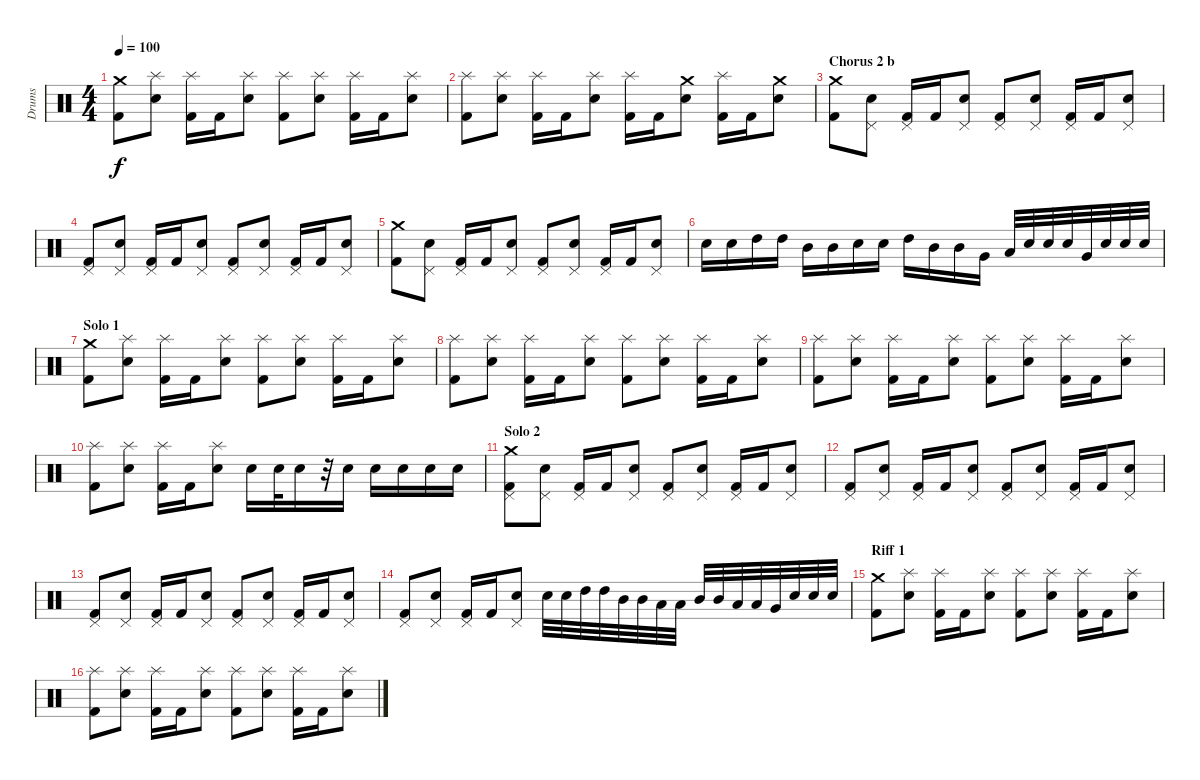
\track ("Drums" "Drums") {instrument percussion}
\staff {score}
\articulation defaults
\ts (4 4)
\tempo 100
\clef neutral
\ks c
("Crash medium (hit)" "Kick (hit) 2").8{dy f} ("Splash (hit)" "Electric Snare (hit)").8 ("Splash (hit)" "Kick (hit) 2").16 "Kick (hit) 2".16 ("Splash (hit)" "Electric Snare (hit)").8 ("Splash (hit)" "Kick (hit) 2").8 ("Splash (hit)" "Electric Snare (hit)").8 ("Splash (hit)" "Kick (hit) 2").16 "Kick (hit) 2".16 ("Splash (hit)" "Electric Snare (hit)").8 |
("Splash (hit)" "Kick (hit) 2").8 ("Splash (hit)" "Electric Snare (hit)").8 ("Splash (hit)" "Kick (hit) 2").16 "Kick (hit) 2".16 ("Splash (hit)" "Electric Snare (hit)").8 ("Splash (hit)" "Kick (hit) 2").16 "Kick (hit) 2".16 ("Crash medium (hit)" "Electric Snare (hit)").8 ("Splash (hit)" "Kick (hit) 2").16 "Kick (hit) 2".16 ("Crash medium (hit)" "Electric Snare (hit)").8 |
\section ("" "Chorus 2 b")
("Crash medium (hit)" "Kick (hit) 2").8 ("Pedal Hi-Hat (hit)" "Electric Snare (hit)").8 ("Pedal Hi-Hat (hit)" "Kick (hit) 2").16 "Kick (hit) 2".16 ("Pedal Hi-Hat (hit)" "Electric Snare (hit)").8 ("Pedal Hi-Hat (hit)" "Kick (hit) 2").8 ("Pedal Hi-Hat (hit)" "Electric Snare (hit)").8 ("Pedal Hi-Hat (hit)" "Kick (hit) 2").16 "Kick (hit) 2".16 ("Pedal Hi-Hat (hit)" "Electric Snare (hit)").8 |
("Pedal Hi-Hat (hit)" "Kick (hit) 2").8 ("Pedal Hi-Hat (hit)" "Electric Snare (hit)").8 ("Pedal Hi-Hat (hit)" "Kick (hit) 2").16 "Kick (hit) 2".16 ("Pedal Hi-Hat (hit)" "Electric Snare (hit)").8 ("Pedal Hi-Hat (hit)" "Kick (hit) 2").8 ("Pedal Hi-Hat (hit)" "Electric Snare (hit)").8 ("Pedal Hi-Hat (hit)" "Kick (hit) 2").16 "Kick (hit) 2".16 ("Pedal Hi-Hat (hit)" "Electric Snare (hit)").8 |
("Crash medium (hit)" "Kick (hit) 2").8 ("Pedal Hi-Hat (hit)" "Electric Snare (hit)").8 ("Pedal Hi-Hat (hit)" "Kick (hit) 2").16 "Kick (hit) 2".16 ("Pedal Hi-Hat (hit)" "Electric Snare (hit)").8 ("Pedal Hi-Hat (hit)" "Kick (hit) 2").8 ("Pedal Hi-Hat (hit)" "Electric Snare (hit)").8 ("Pedal Hi-Hat (hit)" "Kick (hit) 2").16 "Kick (hit) 2".16 ("Pedal Hi-Hat (hit)" "Electric Snare (hit)").8 |
"Electric Snare (hit)".16 "Electric Snare (hit)".16 "High Tom (hit)".16 "High Tom (hit)".16 "Mid Tom (hit)".16 "Mid Tom (hit)".16 "Electric Snare (hit)".16 "Electric Snare (hit)".16 "High Tom (hit)".16 "Mid Tom (hit)".16 "Mid Tom (hit)".16 "Very Low Tom (hit)".16 "Low Tom (hit)".32 "Electric Snare (hit)".32 "Electric Snare (hit)".32 "Electric Snare (hit)".32 "Very Low Tom (hit)".32 "Electric Snare (hit)".32 "Electric Snare (hit)".32 "Electric Snare (hit)".32 |
\section ("" "Solo 1")
("Crash medium (hit)" "Kick (hit) 2").8 ("Splash (hit)" "Electric Snare (hit)").8 ("Splash (hit)" "Kick (hit) 2").16 "Kick (hit) 2".16 ("Splash (hit)" "Electric Snare (hit)").8 ("Splash (hit)" "Kick (hit) 2").8 ("Splash (hit)" "Electric Snare (hit)").8 ("Splash (hit)" "Kick (hit) 2").16 "Kick (hit) 2".16 ("Splash (hit)" "Electric Snare (hit)").8 |
("Splash (hit)" "Kick (hit) 2").8 ("Splash (hit)" "Electric Snare (hit)").8 ("Splash (hit)" "Kick (hit) 2").16 "Kick (hit) 2".16 ("Splash (hit)" "Electric Snare (hit)").8 ("Splash (hit)" "Kick (hit) 2").8 ("Splash (hit)" "Electric Snare (hit)").8 ("Splash (hit)" "Kick (hit) 2").16 "Kick (hit) 2".16 ("Splash (hit)" "Electric Snare (hit)").8 |
("Splash (hit)" "Kick (hit) 2").8 ("Splash (hit)" "Electric Snare (hit)").8 ("Splash (hit)" "Kick (hit) 2").16 "Kick (hit) 2".16 ("Splash (hit)" "Electric Snare (hit)").8 ("Splash (hit)" "Kick (hit) 2").8 ("Splash (hit)" "Electric Snare (hit)").8 ("Splash (hit)" "Kick (hit) 2").16 "Kick (hit) 2".16 ("Splash (hit)" "Electric Snare (hit)").8 |
("Splash (hit)" "Kick (hit) 2").8 ("Splash (hit)" "Electric Snare (hit)").8 ("Splash (hit)" "Kick (hit) 2").16 "Kick (hit) 2".16 ("Splash (hit)" "Electric Snare (hit)").8 "Electric Snare (hit)".16 "Electric Snare (hit)".32 "Electric Snare (hit)".16 r.32 "Electric Snare (hit)".16 "Electric Snare (hit)".16 "Electric Snare (hit)".16 "Electric Snare (hit)".16 "Electric Snare (hit)".16 |
\section ("" "Solo 2")
("Pedal Hi-Hat (hit)" "Crash medium (hit)" "Kick (hit) 2").8 ("Pedal Hi-Hat (hit)" "Electric Snare (hit)").8 ("Pedal Hi-Hat (hit)" "Kick (hit) 2").16 "Kick (hit) 2".16 ("Pedal Hi-Hat (hit)" "Electric Snare (hit)").8 ("Pedal Hi-Hat (hit)" "Kick (hit) 2").8 ("Pedal Hi-Hat (hit)" "Electric Snare (hit)").8 ("Pedal Hi-Hat (hit)" "Kick (hit) 2").16 "Kick (hit) 2".16 ("Pedal Hi-Hat (hit)" "Electric Snare (hit)").8 |
("Pedal Hi-Hat (hit)" "Kick (hit) 2").8 ("Pedal Hi-Hat (hit)" "Electric Snare (hit)").8 ("Pedal Hi-Hat (hit)" "Kick (hit) 2").16 "Kick (hit) 2".16 ("Pedal Hi-Hat (hit)" "Electric Snare (hit)").8 ("Pedal Hi-Hat (hit)" "Kick (hit) 2").8 ("Pedal Hi-Hat (hit)" "Electric Snare (hit)").8 ("Pedal Hi-Hat (hit)" "Kick (hit) 2").16 "Kick (hit) 2".16 ("Pedal Hi-Hat (hit)" "Electric Snare (hit)").8 |
("Pedal Hi-Hat (hit)" "Kick (hit) 2").8 ("Pedal Hi-Hat (hit)" "Electric Snare (hit)").8 ("Pedal Hi-Hat (hit)" "Kick (hit) 2").16 "Kick (hit) 2".16 ("Pedal Hi-Hat (hit)" "Electric Snare (hit)").8 ("Pedal Hi-Hat (hit)" "Kick (hit) 2").8 ("Pedal Hi-Hat (hit)" "Electric Snare (hit)").8 ("Pedal Hi-Hat (hit)" "Kick (hit) 2").16 "Kick (hit) 2".16 ("Pedal Hi-Hat (hit)" "Electric Snare (hit)").8 |
("Pedal Hi-Hat (hit)" "Kick (hit) 2").8 ("Pedal Hi-Hat (hit)" "Electric Snare (hit)").8 ("Pedal Hi-Hat (hit)" "Kick (hit) 2").16 "Kick (hit) 2".16 ("Pedal Hi-Hat (hit)" "Electric Snare (hit)").8 "Electric Snare (hit)".32 "Electric Snare (hit)".32 "High Tom (hit)".32 "High Tom (hit)".32 "Mid Tom (hit)".32 "Mid Tom (hit)".32 "Low Tom (hit)".32 "Low Tom (hit)".32 "Mid Tom (hit)".32 "Mid Tom (hit)".32 "Low Tom (hit)".32 "Low Tom (hit)".32 "Very Low Tom (hit)".32 "Electric Snare (hit)".32 "Electric Snare (hit)".32 "Electric Snare (hit)".32 |
\section ("" "Riff 1")
("Crash medium (hit)" "Kick (hit) 2").8 ("Splash (hit)" "Electric Snare (hit)").8 ("Splash (hit)" "Kick (hit) 2").16 "Kick (hit) 2".16 ("Splash (hit)" "Electric Snare (hit)").8 ("Splash (hit)" "Kick (hit) 2").8 ("Splash (hit)" "Electric Snare (hit)").8 ("Splash (hit)" "Kick (hit) 2").16 "Kick (hit) 2".16 ("Splash (hit)" "Electric Snare (hit)").8 |
("Splash (hit)" "Kick (hit) 2").8 ("Splash (hit)" "Electric Snare (hit)").8 ("Splash (hit)" "Kick (hit) 2").16 "Kick (hit) 2".16 ("Splash (hit)" "Electric Snare (hit)").8 ("Splash (hit)" "Kick (hit) 2").8 ("Splash (hit)" "Electric Snare (hit)").8 ("Splash (hit)" "Kick (hit) 2").16 "Kick (hit) 2".16 ("Splash (hit)" "Electric Snare (hit)").8
